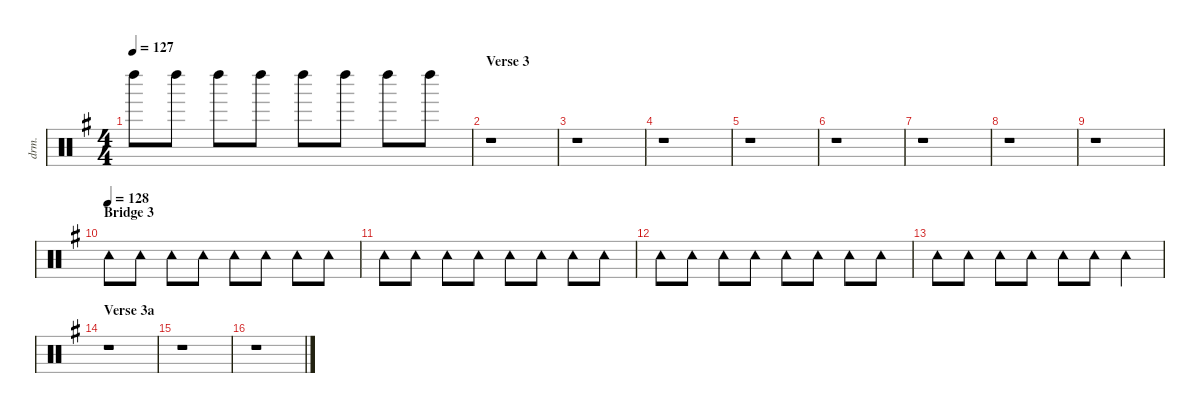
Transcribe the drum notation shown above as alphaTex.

\defaultSystemsLayout 4
\hideDynamics
\bracketExtendMode nobrackets
\otherSystemsTrackNameOrientation horizontal
\track ("Percussion" "drm.") {defaultSystemsLayout 8 instrument percussion}
\staff {score}
\articulation defaults
\ts (4 4)
\tempo 127
\clef neutral
\ks eminor "Left Maraca (hit)"{acc forcenatural}.8{dy f beam Down} "Left Maraca (hit)"{acc forcenatural}.8{beam Down} "Left Maraca (hit)"{acc forcenatural}.8{dy fff beam Down} "Left Maraca (hit)"{acc forcenatural}.8{dy f beam Down} "Left Maraca (hit)"{acc forcenatural}.8{beam Down} "Left Maraca (hit)"{acc forcenatural}.8{beam Down} "Left Maraca (hit)"{acc forcenatural}.8{dy fff beam Down} "Left Maraca (hit)"{acc forcenatural}.8{dy f beam Down}
|
\section ("" "Verse 3")
r.1{beam Down} |
r.1{beam Down} |
r.1{beam Down} |
r.1{beam Down} |
r.1{beam Down} |
r.1{beam Down} |
r.1{beam Down} |
r.1{beam Down} |
\section ("" "Bridge 3")
\tempo (128)
"Tambourine (hit)"{acc forcenatural}.8{beam Down} "Tambourine (hit)"{acc forcenatural}.8{beam Down} "Tambourine (hit)"{acc forcenatural}.8{dy fff beam Down} "Tambourine (hit)"{acc forcenatural}.8{dy f beam Down} "Tambourine (hit)"{acc forcenatural}.8{beam Down} "Tambourine (hit)"{acc forcenatural}.8{beam Down} "Tambourine (hit)"{acc forcenatural}.8{dy fff beam Down} "Tambourine (hit)"{acc forcenatural}.8{dy f beam Down} |
"Tambourine (hit)"{acc forcenatural}.8{beam Down} "Tambourine (hit)"{acc forcenatural}.8{beam Down} "Tambourine (hit)"{acc forcenatural}.8{dy fff beam Down} "Tambourine (hit)"{acc forcenatural}.8{dy f beam Down} "Tambourine (hit)"{acc forcenatural}.8{beam Down} "Tambourine (hit)"{acc forcenatural}.8{beam Down} "Tambourine (hit)"{acc forcenatural}.8{dy fff beam Down} "Tambourine (hit)"{acc forcenatural}.8{dy f beam Down} |
"Tambourine (hit)"{acc forcenatural}.8{beam Down} "Tambourine (hit)"{acc forcenatural}.8{beam Down} "Tambourine (hit)"{acc forcenatural}.8{dy fff beam Down} "Tambourine (hit)"{acc forcenatural}.8{dy f beam Down} "Tambourine (hit)"{acc forcenatural}.8{beam Down} "Tambourine (hit)"{acc forcenatural}.8{beam Down} "Tambourine (hit)"{acc forcenatural}.8{dy fff beam Down} "Tambourine (hit)"{acc forcenatural}.8{dy f beam Down} |
"Tambourine (hit)"{acc forcenatural}.8{beam Down} "Tambourine (hit)"{acc forcenatural}.8{beam Down} "Tambourine (hit)"{acc forcenatural}.8{dy fff beam Down} "Tambourine (hit)"{acc forcenatural}.8{dy f beam Down} "Tambourine (hit)"{acc forcenatural}.8{beam Down} "Tambourine (hit)"{acc forcenatural}.8{beam Down} "Tambourine (hit)"{acc forcenatural}.4{dy fff beam Down} |
\section ("" "Verse 3a")
r.1{beam Down} |
r.1{beam Down} |
r.1{beam Down}
